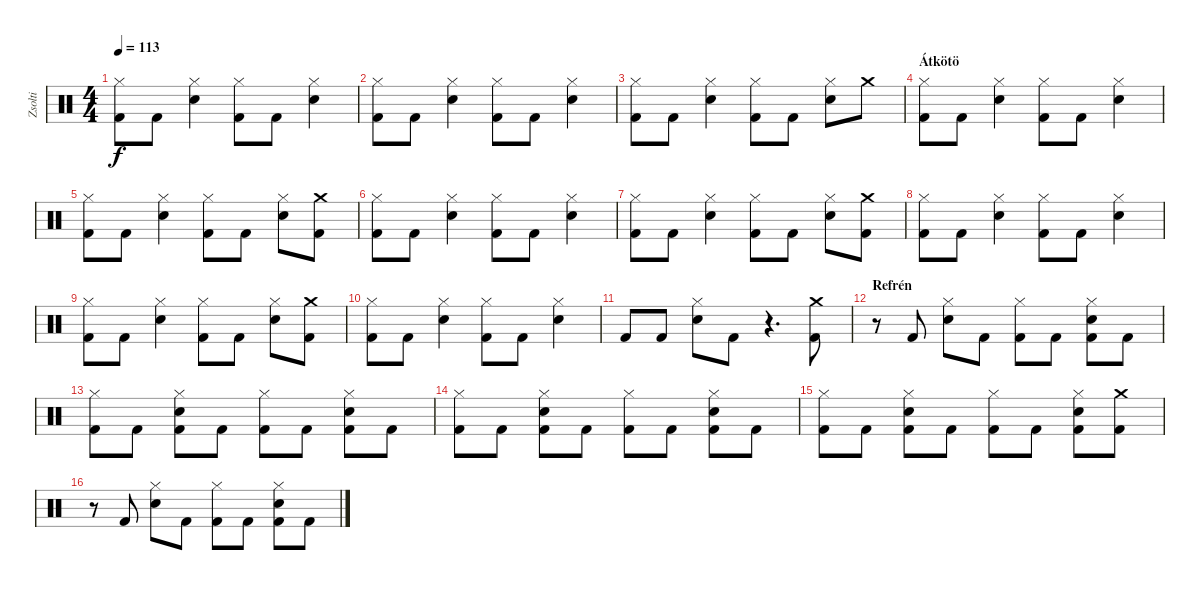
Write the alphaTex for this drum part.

\track ("Zsolti" "Zsolti") {instrument percussion}
\staff {score}
\articulation defaults
\ts (4 4)
\tempo 113
\clef neutral
\ks c
("Hi-Hat (closed)" "Kick (hit) 2").8{dy f} "Kick (hit) 2".8 ("Hi-Hat (closed)" "Snare (hit) 2").4 ("Hi-Hat (closed)" "Kick (hit) 2").8 "Kick (hit) 2".8 ("Hi-Hat (closed)" "Snare (hit) 2").4 |
("Hi-Hat (closed)" "Kick (hit) 2").8 "Kick (hit) 2".8 ("Hi-Hat (closed)" "Snare (hit) 2").4 ("Hi-Hat (closed)" "Kick (hit) 2").8 "Kick (hit) 2".8 ("Hi-Hat (closed)" "Snare (hit) 2").4 |
("Hi-Hat (closed)" "Kick (hit) 2").8 "Kick (hit) 2".8 ("Hi-Hat (closed)" "Snare (hit) 2").4 ("Hi-Hat (closed)" "Kick (hit) 2").8 "Kick (hit) 2".8 ("Hi-Hat (closed)" "Snare (hit) 2").8 "Crash medium (hit)".8 |
\section ("" "Átkötö")
("Hi-Hat (closed)" "Kick (hit) 2").8 "Kick (hit) 2".8 ("Hi-Hat (closed)" "Snare (hit) 2").4 ("Hi-Hat (closed)" "Kick (hit) 2").8 "Kick (hit) 2".8 ("Hi-Hat (closed)" "Snare (hit) 2").4 |
("Hi-Hat (closed)" "Kick (hit) 2").8 "Kick (hit) 2".8 ("Hi-Hat (closed)" "Snare (hit) 2").4 ("Hi-Hat (closed)" "Kick (hit) 2").8 "Kick (hit) 2".8 ("Hi-Hat (closed)" "Snare (hit) 2").8 ("Crash medium (hit)" "Kick (hit) 2").8 |
("Hi-Hat (closed)" "Kick (hit) 2").8 "Kick (hit) 2".8 ("Hi-Hat (closed)" "Snare (hit) 2").4 ("Hi-Hat (closed)" "Kick (hit) 2").8 "Kick (hit) 2".8 ("Hi-Hat (closed)" "Snare (hit) 2").4 |
("Hi-Hat (closed)" "Kick (hit) 2").8 "Kick (hit) 2".8 ("Hi-Hat (closed)" "Snare (hit) 2").4 ("Hi-Hat (closed)" "Kick (hit) 2").8 "Kick (hit) 2".8 ("Hi-Hat (closed)" "Snare (hit) 2").8 ("Crash medium (hit)" "Kick (hit) 2").8 |
("Hi-Hat (closed)" "Kick (hit) 2").8 "Kick (hit) 2".8 ("Hi-Hat (closed)" "Snare (hit) 2").4 ("Hi-Hat (closed)" "Kick (hit) 2").8 "Kick (hit) 2".8 ("Hi-Hat (closed)" "Snare (hit) 2").4 |
("Hi-Hat (closed)" "Kick (hit) 2").8 "Kick (hit) 2".8 ("Hi-Hat (closed)" "Snare (hit) 2").4 ("Hi-Hat (closed)" "Kick (hit) 2").8 "Kick (hit) 2".8 ("Hi-Hat (closed)" "Snare (hit) 2").8 ("Crash medium (hit)" "Kick (hit) 2").8 |
("Hi-Hat (closed)" "Kick (hit) 2").8 "Kick (hit) 2".8 ("Hi-Hat (closed)" "Snare (hit) 2").4 ("Hi-Hat (closed)" "Kick (hit) 2").8 "Kick (hit) 2".8 ("Hi-Hat (closed)" "Snare (hit) 2").4 |
"Kick (hit) 2".8 "Kick (hit) 2".8 ("Hi-Hat (closed)" "Snare (hit) 2").8 "Kick (hit) 2".8 r.4{d} ("Crash medium (hit)" "Kick (hit) 2").8 |
\section ("" "Refrén")
r.8 "Kick (hit) 2".8 ("Hi-Hat (closed)" "Snare (hit) 2").8 "Kick (hit) 2".8 ("Hi-Hat (closed)" "Kick (hit) 2").8 "Kick (hit) 2".8 ("Hi-Hat (closed)" "Snare (hit) 2" "Kick (hit) 2").8 "Kick (hit) 2".8 |
("Hi-Hat (closed)" "Kick (hit) 2").8 "Kick (hit) 2".8 ("Hi-Hat (closed)" "Snare (hit) 2" "Kick (hit) 2").8 "Kick (hit) 2".8 ("Hi-Hat (closed)" "Kick (hit) 2").8 "Kick (hit) 2".8 ("Hi-Hat (closed)" "Snare (hit) 2" "Kick (hit) 2").8 "Kick (hit) 2".8 |
("Hi-Hat (closed)" "Kick (hit) 2").8 "Kick (hit) 2".8 ("Hi-Hat (closed)" "Snare (hit) 2" "Kick (hit) 2").8 "Kick (hit) 2".8 ("Hi-Hat (closed)" "Kick (hit) 2").8 "Kick (hit) 2".8 ("Hi-Hat (closed)" "Snare (hit) 2" "Kick (hit) 2").8 "Kick (hit) 2".8 |
("Hi-Hat (closed)" "Kick (hit) 2").8 "Kick (hit) 2".8 ("Hi-Hat (closed)" "Snare (hit) 2" "Kick (hit) 2").8 "Kick (hit) 2".8 ("Hi-Hat (closed)" "Kick (hit) 2").8 "Kick (hit) 2".8 ("Hi-Hat (closed)" "Snare (hit) 2" "Kick (hit) 2").8 ("Crash medium (hit)" "Kick (hit) 2").8 |
r.8 "Kick (hit) 2".8 ("Hi-Hat (closed)" "Snare (hit) 2").8 "Kick (hit) 2".8 ("Hi-Hat (closed)" "Kick (hit) 2").8 "Kick (hit) 2".8 ("Hi-Hat (closed)" "Snare (hit) 2" "Kick (hit) 2").8 "Kick (hit) 2".8
